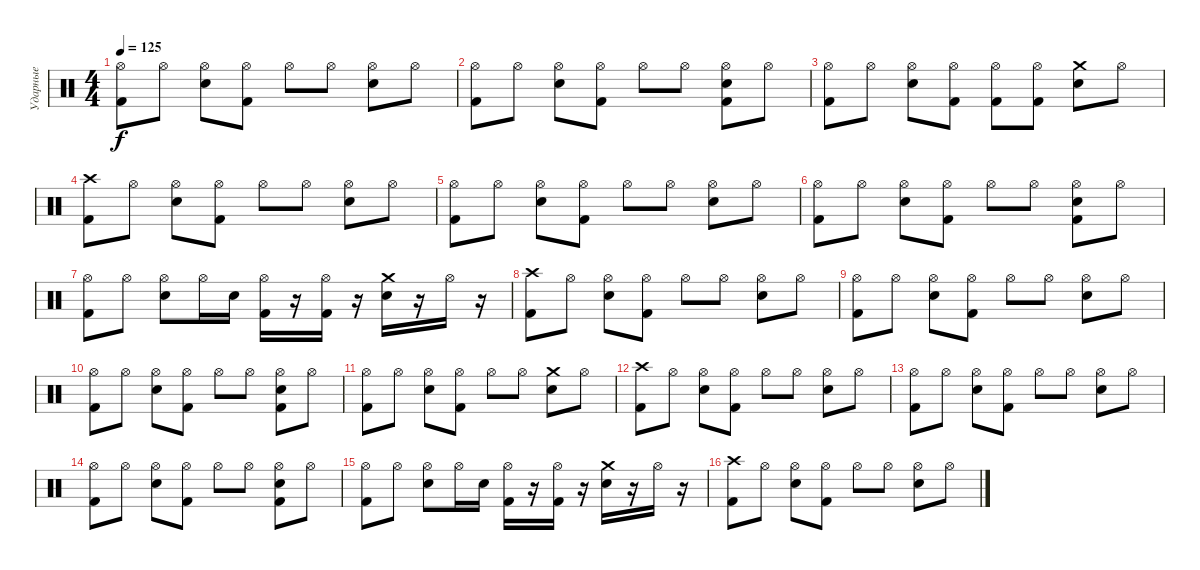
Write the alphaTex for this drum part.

\track ("Ударные" "Ударные") {instrument percussion}
\staff {score}
\articulation defaults
\ts (4 4)
\tempo 125
\clef neutral
\ks c
("Hi-Hat (open)" "Kick (hit) 2").8{dy f} "Hi-Hat (open)".8 ("Hi-Hat (open)" "Snare (hit) 2").8 ("Hi-Hat (open)" "Kick (hit) 2").8 "Hi-Hat (open)".8 "Hi-Hat (open)".8 ("Hi-Hat (open)" "Snare (hit) 2").8 "Hi-Hat (open)".8 |
("Hi-Hat (open)" "Kick (hit) 2").8 "Hi-Hat (open)".8 ("Hi-Hat (open)" "Snare (hit) 2").8 ("Hi-Hat (open)" "Kick (hit) 2").8 "Hi-Hat (open)".8 "Hi-Hat (open)".8 ("Hi-Hat (open)" "Snare (hit) 2" "Kick (hit) 2").8 "Hi-Hat (open)".8 |
("Hi-Hat (open)" "Kick (hit) 2").8 "Hi-Hat (open)".8 ("Hi-Hat (open)" "Snare (hit) 2").8 ("Hi-Hat (open)" "Kick (hit) 2").8 ("Hi-Hat (open)" "Kick (hit) 2").8 ("Hi-Hat (open)" "Kick (hit) 2").8 ("Crash medium (hit)" "Snare (hit) 2").8 "Hi-Hat (open)".8 |
("Crash high (hit)" "Kick (hit) 2").8 "Hi-Hat (open)".8 ("Hi-Hat (open)" "Snare (hit) 2").8 ("Hi-Hat (open)" "Kick (hit) 2").8 "Hi-Hat (open)".8 "Hi-Hat (open)".8 ("Hi-Hat (open)" "Snare (hit) 2").8 "Hi-Hat (open)".8 |
("Hi-Hat (open)" "Kick (hit) 2").8 "Hi-Hat (open)".8 ("Hi-Hat (open)" "Snare (hit) 2").8 ("Hi-Hat (open)" "Kick (hit) 2").8 "Hi-Hat (open)".8 "Hi-Hat (open)".8 ("Hi-Hat (open)" "Snare (hit) 2").8 "Hi-Hat (open)".8 |
("Hi-Hat (open)" "Kick (hit) 2").8 "Hi-Hat (open)".8 ("Hi-Hat (open)" "Snare (hit) 2").8 ("Hi-Hat (open)" "Kick (hit) 2").8 "Hi-Hat (open)".8 "Hi-Hat (open)".8 ("Hi-Hat (open)" "Snare (hit) 2" "Kick (hit) 2").8 "Hi-Hat (open)".8 |
("Hi-Hat (open)" "Kick (hit) 2").8 "Hi-Hat (open)".8 ("Hi-Hat (open)" "Snare (hit) 2").8 "Hi-Hat (open)".16 "Snare (hit) 2".16 ("Hi-Hat (open)" "Kick (hit) 2").16 r.16 ("Hi-Hat (open)" "Kick (hit) 2").16 r.16 ("Crash medium (hit)" "Snare (hit) 2").16 r.16 "Hi-Hat (open)".16 r.16 |
("Crash high (hit)" "Kick (hit) 2").8 "Hi-Hat (open)".8 ("Hi-Hat (open)" "Snare (hit) 2").8 ("Hi-Hat (open)" "Kick (hit) 2").8 "Hi-Hat (open)".8 "Hi-Hat (open)".8 ("Hi-Hat (open)" "Snare (hit) 2").8 "Hi-Hat (open)".8 |
("Hi-Hat (open)" "Kick (hit) 2").8 "Hi-Hat (open)".8 ("Hi-Hat (open)" "Snare (hit) 2").8 ("Hi-Hat (open)" "Kick (hit) 2").8 "Hi-Hat (open)".8 "Hi-Hat (open)".8 ("Hi-Hat (open)" "Snare (hit) 2").8 "Hi-Hat (open)".8 |
("Hi-Hat (open)" "Kick (hit) 2").8 "Hi-Hat (open)".8 ("Hi-Hat (open)" "Snare (hit) 2").8 ("Hi-Hat (open)" "Kick (hit) 2").8 "Hi-Hat (open)".8 "Hi-Hat (open)".8 ("Hi-Hat (open)" "Snare (hit) 2" "Kick (hit) 2").8 "Hi-Hat (open)".8 |
("Hi-Hat (open)" "Kick (hit) 2").8 "Hi-Hat (open)".8 ("Hi-Hat (open)" "Snare (hit) 2").8 ("Hi-Hat (open)" "Kick (hit) 2").8 "Hi-Hat (open)".8 "Hi-Hat (open)".8 ("Crash medium (hit)" "Snare (hit) 2").8 "Hi-Hat (open)".8 |
("Crash high (hit)" "Kick (hit) 2").8 "Hi-Hat (open)".8 ("Hi-Hat (open)" "Snare (hit) 2").8 ("Hi-Hat (open)" "Kick (hit) 2").8 "Hi-Hat (open)".8 "Hi-Hat (open)".8 ("Hi-Hat (open)" "Snare (hit) 2").8 "Hi-Hat (open)".8 |
("Hi-Hat (open)" "Kick (hit) 2").8 "Hi-Hat (open)".8 ("Hi-Hat (open)" "Snare (hit) 2").8 ("Hi-Hat (open)" "Kick (hit) 2").8 "Hi-Hat (open)".8 "Hi-Hat (open)".8 ("Hi-Hat (open)" "Snare (hit) 2").8 "Hi-Hat (open)".8 |
("Hi-Hat (open)" "Kick (hit) 2").8 "Hi-Hat (open)".8 ("Hi-Hat (open)" "Snare (hit) 2").8 ("Hi-Hat (open)" "Kick (hit) 2").8 "Hi-Hat (open)".8 "Hi-Hat (open)".8 ("Hi-Hat (open)" "Snare (hit) 2" "Kick (hit) 2").8 "Hi-Hat (open)".8 |
("Hi-Hat (open)" "Kick (hit) 2").8 "Hi-Hat (open)".8 ("Hi-Hat (open)" "Snare (hit) 2").8 "Hi-Hat (open)".16 "Snare (hit) 2".16 ("Hi-Hat (open)" "Kick (hit) 2").16 r.16 ("Hi-Hat (open)" "Kick (hit) 2").16 r.16 ("Crash medium (hit)" "Snare (hit) 2").16 r.16 "Hi-Hat (open)".16 r.16 |
("Crash high (hit)" "Kick (hit) 2").8 "Hi-Hat (open)".8 ("Hi-Hat (open)" "Snare (hit) 2").8 ("Hi-Hat (open)" "Kick (hit) 2").8 "Hi-Hat (open)".8 "Hi-Hat (open)".8 ("Hi-Hat (open)" "Snare (hit) 2").8 "Hi-Hat (open)".8
